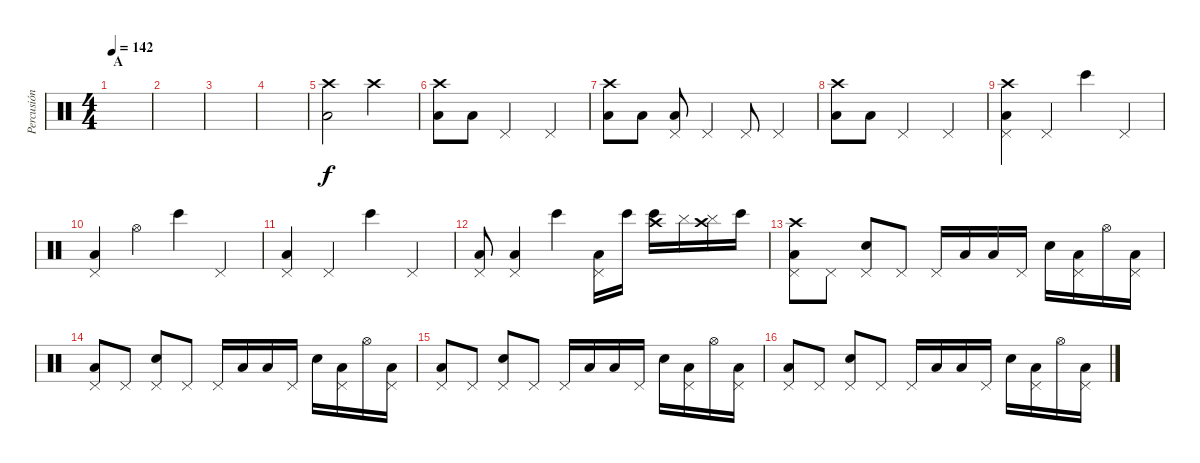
\track ("Percusión" "Percusión") {instrument percussion}
\staff {score}
\articulation defaults
\ts (4 4)
\section ("" "A")
\tempo 142
\clef neutral
\ks c
|
|
|
|
("Crash high (hit)" "Low Floor Tom (hit)").2 "Crash high (hit)".2 |
("Crash high (hit)" "Low Floor Tom (hit)").8 "Low Floor Tom (hit)".8 "Pedal Hi-Hat (hit)".2 "Pedal Hi-Hat (hit)".4 |
("Crash high (hit)" "Low Floor Tom (hit)").8 "Low Floor Tom (hit)".8 ("Pedal Hi-Hat (hit)" "Low Floor Tom (hit)").8 "Pedal Hi-Hat (hit)".4 "Pedal Hi-Hat (hit)".8 "Pedal Hi-Hat (hit)".4 |
("Crash high (hit)" "Low Floor Tom (hit)").8 "Low Floor Tom (hit)".8 "Pedal Hi-Hat (hit)".2 "Pedal Hi-Hat (hit)".4 |
("Crash high (hit)" "Pedal Hi-Hat (hit)" "Low Floor Tom (hit)").4 "Pedal Hi-Hat (hit)".4 "Bongo High (hit)".4 "Pedal Hi-Hat (hit)".4 |
("Pedal Hi-Hat (hit)" "Low Floor Tom (hit)").4 "Hi-Hat (open)".4 "Bongo High (hit)".4 "Pedal Hi-Hat (hit)".4 |
("Pedal Hi-Hat (hit)" "Low Floor Tom (hit)").4 "Pedal Hi-Hat (hit)".4 "Bongo High (hit)".4 "Pedal Hi-Hat (hit)".4 |
("Pedal Hi-Hat (hit)" "Low Floor Tom (hit)").8 ("Pedal Hi-Hat (hit)" "Low Floor Tom (hit)").4 "Bongo High (hit)".4 ("Pedal Hi-Hat (hit)" "Low Floor Tom (hit)").16 "Bongo High (hit)".16 ("Crash high (hit)" "Bongo High (hit)").16 "Cymbal (hit)".16 ("Crash high (hit)" "Cymbal (hit)").16 "Bongo High (hit)".16 |
("Crash high (hit)" "Pedal Hi-Hat (hit)" "Low Floor Tom (hit)").8 "Pedal Hi-Hat (hit)".8 ("Pedal Hi-Hat (hit)" "Snare (hit) 2").8 "Pedal Hi-Hat (hit)".8 "Pedal Hi-Hat (hit)".16 "Low Floor Tom (hit)".16 "Low Floor Tom (hit)".16 "Pedal Hi-Hat (hit)".16 "Snare (hit) 2".16 ("Pedal Hi-Hat (hit)" "Low Floor Tom (hit)").16 "Hi-Hat (open)".16 ("Pedal Hi-Hat (hit)" "Low Floor Tom (hit)").16 |
("Pedal Hi-Hat (hit)" "Low Floor Tom (hit)").8 "Pedal Hi-Hat (hit)".8 ("Pedal Hi-Hat (hit)" "Snare (hit) 2").8 "Pedal Hi-Hat (hit)".8 "Pedal Hi-Hat (hit)".16 "Low Floor Tom (hit)".16 "Low Floor Tom (hit)".16 "Pedal Hi-Hat (hit)".16 "Snare (hit) 2".16 ("Pedal Hi-Hat (hit)" "Low Floor Tom (hit)").16 "Hi-Hat (open)".16 ("Pedal Hi-Hat (hit)" "Low Floor Tom (hit)").16 |
("Pedal Hi-Hat (hit)" "Low Floor Tom (hit)").8 "Pedal Hi-Hat (hit)".8 ("Pedal Hi-Hat (hit)" "Snare (hit) 2").8 "Pedal Hi-Hat (hit)".8 "Pedal Hi-Hat (hit)".16 "Low Floor Tom (hit)".16 "Low Floor Tom (hit)".16 "Pedal Hi-Hat (hit)".16 "Snare (hit) 2".16 ("Pedal Hi-Hat (hit)" "Low Floor Tom (hit)").16 "Hi-Hat (open)".16 ("Pedal Hi-Hat (hit)" "Low Floor Tom (hit)").16 |
("Pedal Hi-Hat (hit)" "Low Floor Tom (hit)").8 "Pedal Hi-Hat (hit)".8 ("Pedal Hi-Hat (hit)" "Snare (hit) 2").8 "Pedal Hi-Hat (hit)".8 "Pedal Hi-Hat (hit)".16 "Low Floor Tom (hit)".16 "Low Floor Tom (hit)".16 "Pedal Hi-Hat (hit)".16 "Snare (hit) 2".16 ("Pedal Hi-Hat (hit)" "Low Floor Tom (hit)").16 "Hi-Hat (open)".16 ("Pedal Hi-Hat (hit)" "Low Floor Tom (hit)").16
